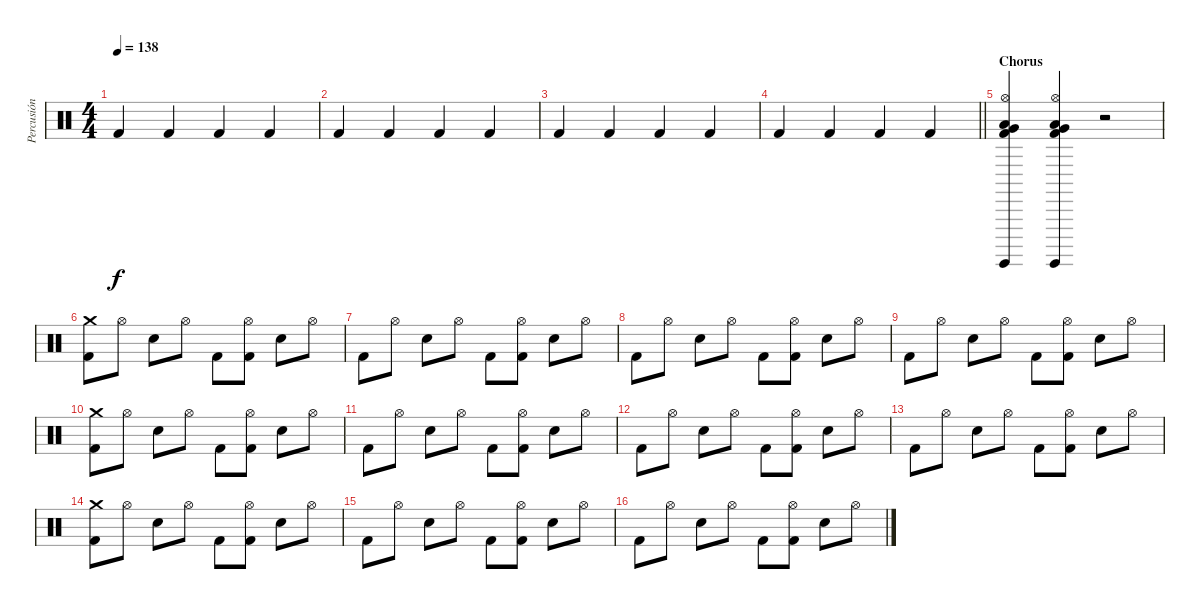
\track ("Percusión" "Percusión") {instrument percussion}
\staff {score}
\articulation defaults
\ts (4 4)
\tempo 138
\clef neutral
\ks c "Kick (hit) 2".4{dy f} "Kick (hit) 2".4 "Kick (hit) 2".4 "Kick (hit) 2".4
|
"Kick (hit) 2".4 "Kick (hit) 2".4 "Kick (hit) 2".4 "Kick (hit) 2".4 |
"Kick (hit) 2".4 "Kick (hit) 2".4 "Kick (hit) 2".4 "Kick (hit) 2".4 |
\barLineRight lightlight "Kick (hit) 2".4 "Kick (hit) 2".4 "Kick (hit) 2".4 "Kick (hit) 2".4
|
\section ("" "Chorus")
("Hi-Hat (open)" "Low Tom (hit)" "Surdo (hit)" "Very Low Tom (hit)" "Kick (hit) 2").4 ("Hi-Hat (open)" "Low Tom (hit)" "Surdo (hit)" "Very Low Tom (hit)" "Kick (hit) 2").4 r.2 |
("Crash medium (hit)" "Kick (hit) 2").8 "Hi-Hat (open)".8 "Electric Snare (hit)".8 "Hi-Hat (open)".8 "Kick (hit) 2".8 ("Hi-Hat (open)" "Kick (hit) 2").8 "Electric Snare (hit)".8 "Hi-Hat (open)".8 |
"Kick (hit) 2".8 "Hi-Hat (open)".8 "Electric Snare (hit)".8 "Hi-Hat (open)".8 "Kick (hit) 2".8 ("Hi-Hat (open)" "Kick (hit) 2").8 "Electric Snare (hit)".8 "Hi-Hat (open)".8 |
"Kick (hit) 2".8 "Hi-Hat (open)".8 "Electric Snare (hit)".8 "Hi-Hat (open)".8 "Kick (hit) 2".8 ("Hi-Hat (open)" "Kick (hit) 2").8 "Electric Snare (hit)".8 "Hi-Hat (open)".8 |
"Kick (hit) 2".8 "Hi-Hat (open)".8 "Electric Snare (hit)".8 "Hi-Hat (open)".8 "Kick (hit) 2".8 ("Hi-Hat (open)" "Kick (hit) 2").8 "Electric Snare (hit)".8 "Hi-Hat (open)".8 |
("Crash medium (hit)" "Kick (hit) 2").8 "Hi-Hat (open)".8 "Electric Snare (hit)".8 "Hi-Hat (open)".8 "Kick (hit) 2".8 ("Hi-Hat (open)" "Kick (hit) 2").8 "Electric Snare (hit)".8 "Hi-Hat (open)".8 |
"Kick (hit) 2".8 "Hi-Hat (open)".8 "Electric Snare (hit)".8 "Hi-Hat (open)".8 "Kick (hit) 2".8 ("Hi-Hat (open)" "Kick (hit) 2").8 "Electric Snare (hit)".8 "Hi-Hat (open)".8 |
"Kick (hit) 2".8 "Hi-Hat (open)".8 "Electric Snare (hit)".8 "Hi-Hat (open)".8 "Kick (hit) 2".8 ("Hi-Hat (open)" "Kick (hit) 2").8 "Electric Snare (hit)".8 "Hi-Hat (open)".8 |
"Kick (hit) 2".8 "Hi-Hat (open)".8 "Electric Snare (hit)".8 "Hi-Hat (open)".8 "Kick (hit) 2".8 ("Hi-Hat (open)" "Kick (hit) 2").8 "Electric Snare (hit)".8 "Hi-Hat (open)".8 |
("Crash medium (hit)" "Kick (hit) 2").8 "Hi-Hat (open)".8 "Electric Snare (hit)".8 "Hi-Hat (open)".8 "Kick (hit) 2".8 ("Hi-Hat (open)" "Kick (hit) 2").8 "Electric Snare (hit)".8 "Hi-Hat (open)".8 |
"Kick (hit) 2".8 "Hi-Hat (open)".8 "Electric Snare (hit)".8 "Hi-Hat (open)".8 "Kick (hit) 2".8 ("Hi-Hat (open)" "Kick (hit) 2").8 "Electric Snare (hit)".8 "Hi-Hat (open)".8 |
"Kick (hit) 2".8 "Hi-Hat (open)".8 "Electric Snare (hit)".8 "Hi-Hat (open)".8 "Kick (hit) 2".8 ("Hi-Hat (open)" "Kick (hit) 2").8 "Electric Snare (hit)".8 "Hi-Hat (open)".8
